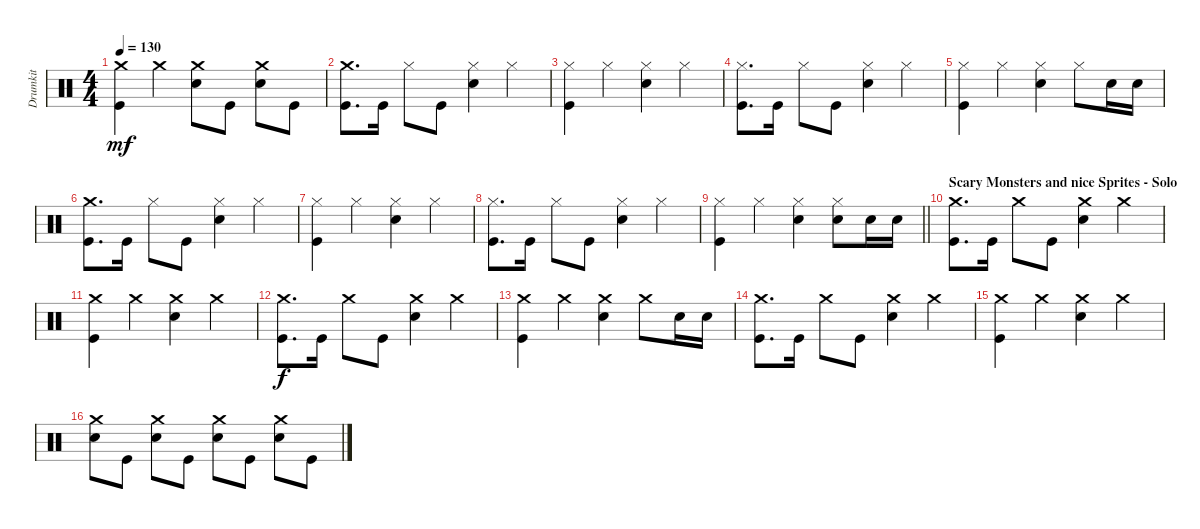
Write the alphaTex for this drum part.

\track ("Drumkit" "Drumkit") {instrument percussion}
\staff {score}
\articulation defaults
\ts (4 4)
\tempo 130
\clef neutral
\ks c
("Kick (hit)" "Crash medium (hit)").4{dy mf} "Crash medium (hit)".4 ("Crash medium (hit)" "Snare (hit) 2").8 "Kick (hit)".8 ("Snare (hit) 2" "Crash medium (hit)").8 "Kick (hit)".8 |
("Kick (hit)" "Crash medium (hit)").8{d} "Kick (hit)".16 "Hi-Hat (closed)".8 "Kick (hit)".8 ("Snare (hit) 2" "Hi-Hat (closed)").4 "Hi-Hat (closed)".4 |
("Kick (hit)" "Hi-Hat (closed)").4 "Hi-Hat (closed)".4 ("Snare (hit) 2" "Hi-Hat (closed)").4 "Hi-Hat (closed)".4 |
("Kick (hit)" "Hi-Hat (closed)").8{d} "Kick (hit)".16 "Hi-Hat (closed)".8 "Kick (hit)".8 ("Snare (hit) 2" "Hi-Hat (closed)").4 "Hi-Hat (closed)".4 |
("Kick (hit)" "Hi-Hat (closed)").4 "Hi-Hat (closed)".4 ("Snare (hit) 2" "Hi-Hat (closed)").4 "Hi-Hat (closed)".8 "Snare (hit) 2".16 "Snare (hit) 2".16 |
("Kick (hit)" "Crash medium (hit)").8{d} "Kick (hit)".16 "Hi-Hat (closed)".8 "Kick (hit)".8 ("Snare (hit) 2" "Hi-Hat (closed)").4 "Hi-Hat (closed)".4 |
("Kick (hit)" "Hi-Hat (closed)").4 "Hi-Hat (closed)".4 ("Snare (hit) 2" "Hi-Hat (closed)").4 "Hi-Hat (closed)".4 |
("Kick (hit)" "Hi-Hat (closed)").8{d} "Kick (hit)".16 "Hi-Hat (closed)".8 "Kick (hit)".8 ("Snare (hit) 2" "Hi-Hat (closed)").4 "Hi-Hat (closed)".4 |
\barLineRight lightlight
("Kick (hit)" "Hi-Hat (closed)").4 "Hi-Hat (closed)".4 ("Snare (hit) 2" "Hi-Hat (closed)").4 ("Hi-Hat (closed)" "Snare (hit) 2").8 "Snare (hit) 2".16 "Snare (hit) 2".16 |
\section ("" "Scary Monsters and nice Sprites - Solo")
("Kick (hit)" "Crash medium (hit)").8{d} "Kick (hit)".16 "Crash medium (hit)".8 "Kick (hit)".8 ("Crash medium (hit)" "Snare (hit) 2").4 "Crash medium (hit)".4 |
("Kick (hit)" "Crash medium (hit)").4 "Crash medium (hit)".4 ("Crash medium (hit)" "Snare (hit) 2").4 "Crash medium (hit)".4 |
("Kick (hit)" "Crash medium (hit)").8{d dy f} "Kick (hit)".16 "Crash medium (hit)".8 "Kick (hit)".8 ("Crash medium (hit)" "Snare (hit) 2").4 "Crash medium (hit)".4 |
("Kick (hit)" "Crash medium (hit)").4 "Crash medium (hit)".4 ("Crash medium (hit)" "Snare (hit) 2").4 "Crash medium (hit)".8 "Snare (hit) 2".16 "Snare (hit) 2".16 |
("Kick (hit)" "Crash medium (hit)").8{d} "Kick (hit)".16 "Crash medium (hit)".8 "Kick (hit)".8 ("Crash medium (hit)" "Snare (hit) 2").4 "Crash medium (hit)".4 |
("Kick (hit)" "Crash medium (hit)").4 "Crash medium (hit)".4 ("Crash medium (hit)" "Snare (hit) 2").4 "Crash medium (hit)".4 |
("Snare (hit) 2" "Crash medium (hit)").8 "Kick (hit)".8 ("Snare (hit) 2" "Crash medium (hit)").8 "Kick (hit)".8 ("Snare (hit) 2" "Crash medium (hit)").8 "Kick (hit)".8 ("Snare (hit) 2" "Crash medium (hit)").8 "Kick (hit)".8
